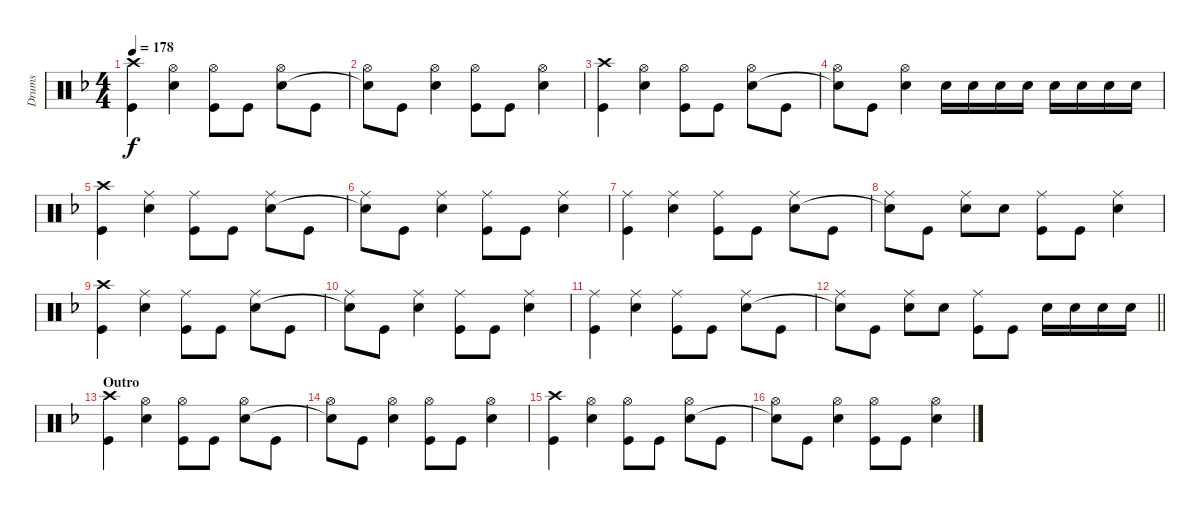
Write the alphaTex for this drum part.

\track ("Drums" "Drums") {instrument percussion}
\staff {score}
\articulation defaults
\ts (4 4)
\tempo 178
\clef neutral
\ks f
("Crash high (hit)" "Kick (hit)").4{dy f} ("Hi-Hat (open)" "Electric Snare (hit)").4 ("Hi-Hat (open)" "Kick (hit)").8 "Kick (hit)".8 ("Hi-Hat (open)" "Electric Snare (hit)").8 "Kick (hit)".8 |
("Hi-Hat (open)" "Snare (hit)"{t}).8 "Kick (hit)".8 ("Hi-Hat (open)" "Electric Snare (hit)").4 ("Hi-Hat (open)" "Kick (hit)").8 "Kick (hit)".8 ("Hi-Hat (open)" "Electric Snare (hit)").4 |
("Crash high (hit)" "Kick (hit)").4 ("Hi-Hat (open)" "Electric Snare (hit)").4 ("Hi-Hat (open)" "Kick (hit)").8 "Kick (hit)".8 ("Hi-Hat (open)" "Electric Snare (hit)").8 "Kick (hit)".8 |
("Hi-Hat (open)" "Snare (hit)"{t}).8 "Kick (hit)".8 ("Hi-Hat (open)" "Electric Snare (hit)").4 "Electric Snare (hit)".16 "Electric Snare (hit)".16 "Electric Snare (hit)".16 "Electric Snare (hit)".16 "Electric Snare (hit)".16 "Electric Snare (hit)".16 "Electric Snare (hit)".16 "Electric Snare (hit)".16 |
("Crash high (hit)" "Kick (hit)").4 ("Ride (middle)" "Electric Snare (hit)").4 ("Ride (middle)" "Kick (hit)").8 "Kick (hit)".8 ("Ride (middle)" "Electric Snare (hit)").8 "Kick (hit)".8 |
("Ride (middle)" "Snare (hit)"{t}).8 "Kick (hit)".8 ("Ride (middle)" "Electric Snare (hit)").4 ("Ride (middle)" "Kick (hit)").8 "Kick (hit)".8 ("Ride (middle)" "Electric Snare (hit)").4 |
("Ride (middle)" "Kick (hit)").4 ("Ride (middle)" "Electric Snare (hit)").4 ("Ride (middle)" "Kick (hit)").8 "Kick (hit)".8 ("Ride (middle)" "Electric Snare (hit)").8 "Kick (hit)".8 |
("Ride (middle)" "Snare (hit)"{t}).8 "Kick (hit)".8 ("Ride (middle)" "Electric Snare (hit)").8 "Electric Snare (hit)".8 ("Ride (middle)" "Kick (hit)").8 "Kick (hit)".8 ("Ride (middle)" "Electric Snare (hit)").4 |
("Crash high (hit)" "Kick (hit)").4 ("Ride (middle)" "Electric Snare (hit)").4 ("Ride (middle)" "Kick (hit)").8 "Kick (hit)".8 ("Ride (middle)" "Electric Snare (hit)").8 "Kick (hit)".8 |
("Ride (middle)" "Snare (hit)"{t}).8 "Kick (hit)".8 ("Ride (middle)" "Electric Snare (hit)").4 ("Ride (middle)" "Kick (hit)").8 "Kick (hit)".8 ("Ride (middle)" "Electric Snare (hit)").4 |
("Ride (middle)" "Kick (hit)").4 ("Ride (middle)" "Electric Snare (hit)").4 ("Ride (middle)" "Kick (hit)").8 "Kick (hit)".8 ("Ride (middle)" "Electric Snare (hit)").8 "Kick (hit)".8 |
\barLineRight lightlight
("Ride (middle)" "Snare (hit)"{t}).8 "Kick (hit)".8 ("Ride (middle)" "Electric Snare (hit)").8 "Electric Snare (hit)".8 ("Ride (middle)" "Kick (hit)").8 "Kick (hit)".8 "Electric Snare (hit)".16 "Electric Snare (hit)".16 "Electric Snare (hit)".16 "Electric Snare (hit)".16 |
\section ("" "Outro")
("Crash high (hit)" "Kick (hit)").4 ("Hi-Hat (open)" "Electric Snare (hit)").4 ("Hi-Hat (open)" "Kick (hit)").8 "Kick (hit)".8 ("Hi-Hat (open)" "Electric Snare (hit)").8 "Kick (hit)".8 |
("Hi-Hat (open)" "Snare (hit)"{t}).8 "Kick (hit)".8 ("Hi-Hat (open)" "Electric Snare (hit)").4 ("Hi-Hat (open)" "Kick (hit)").8 "Kick (hit)".8 ("Hi-Hat (open)" "Electric Snare (hit)").4 |
("Crash high (hit)" "Kick (hit)").4 ("Hi-Hat (open)" "Electric Snare (hit)").4 ("Hi-Hat (open)" "Kick (hit)").8 "Kick (hit)".8 ("Hi-Hat (open)" "Electric Snare (hit)").8 "Kick (hit)".8 |
("Hi-Hat (open)" "Snare (hit)"{t}).8 "Kick (hit)".8 ("Hi-Hat (open)" "Electric Snare (hit)").4 ("Hi-Hat (open)" "Kick (hit)").8 "Kick (hit)".8 ("Hi-Hat (open)" "Electric Snare (hit)").4
